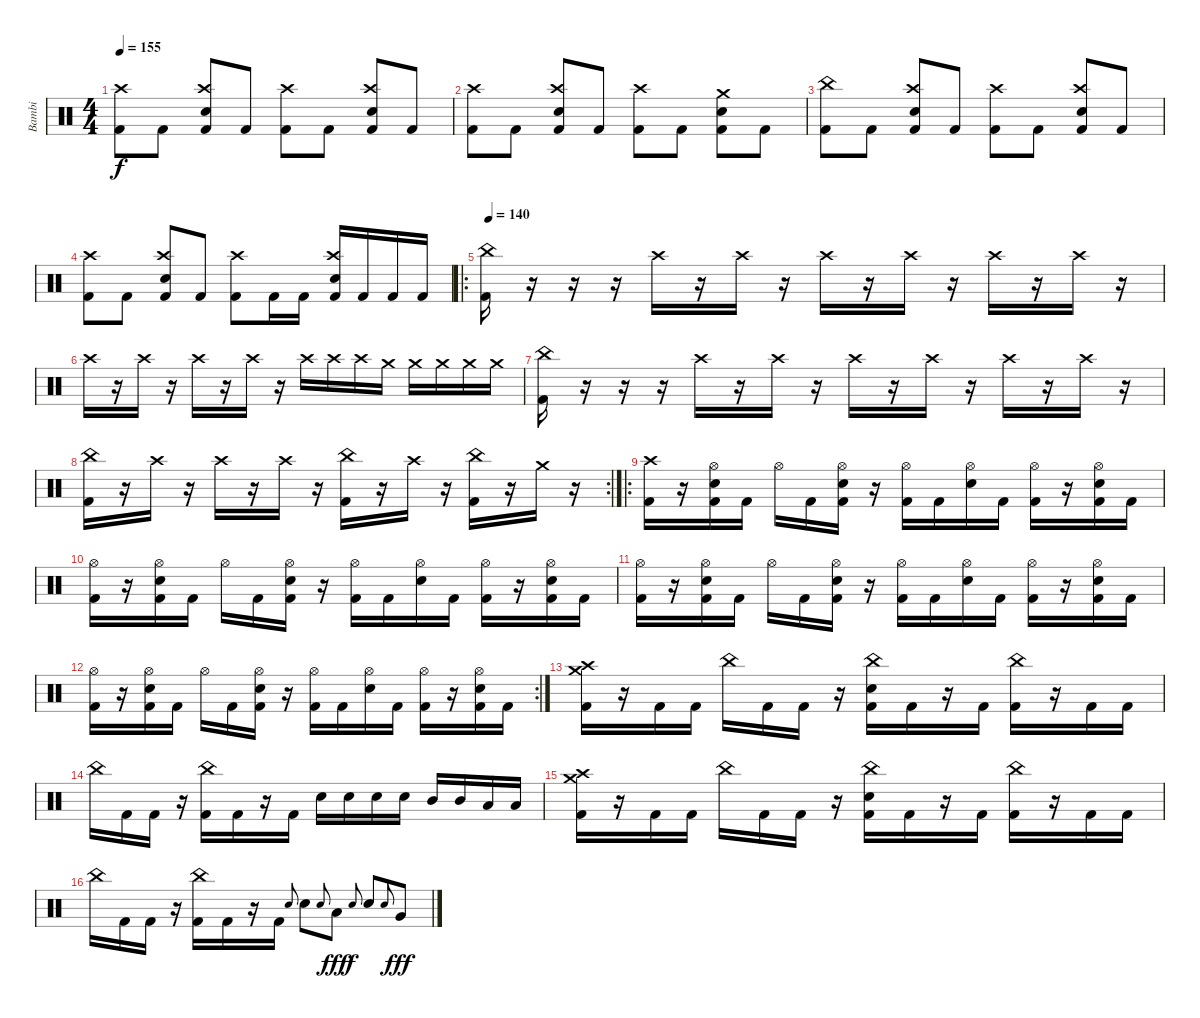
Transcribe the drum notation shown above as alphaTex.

\track ("Bambi" "Bambi") {instrument percussion}
\staff {score}
\articulation defaults
\ts (4 4)
\tempo 155
\clef neutral
\ks c
("Kick (hit) 2" "Crash high (hit)").8{dy f} "Kick (hit) 2".8 ("Kick (hit) 2" "Crash high (hit)" "Electric Snare (hit)").8 "Kick (hit) 2".8 ("Kick (hit) 2" "Crash high (hit)").8 "Kick (hit) 2".8 ("Kick (hit) 2" "Crash high (hit)" "Electric Snare (hit)").8 "Kick (hit) 2".8 |
("Kick (hit) 2" "Crash high (hit)").8 "Kick (hit) 2".8 ("Kick (hit) 2" "Crash high (hit)" "Electric Snare (hit)").8 "Kick (hit) 2".8 ("Kick (hit) 2" "Crash high (hit)").8 "Kick (hit) 2".8 ("Kick (hit) 2" "Crash medium (hit)" "Electric Snare (hit)").8 "Kick (hit) 2".8 |
("Kick (hit) 2" "China (hit)").8 "Kick (hit) 2".8 ("Kick (hit) 2" "Crash high (hit)" "Electric Snare (hit)").8 "Kick (hit) 2".8 ("Kick (hit) 2" "Crash high (hit)").8 "Kick (hit) 2".8 ("Kick (hit) 2" "Crash high (hit)" "Electric Snare (hit)").8 "Kick (hit) 2".8 |
("Kick (hit) 2" "Crash high (hit)").8 "Kick (hit) 2".8 ("Kick (hit) 2" "Crash high (hit)" "Electric Snare (hit)").8 "Kick (hit) 2".8 ("Kick (hit) 2" "Crash high (hit)").8 "Kick (hit) 2".16 "Kick (hit) 2".16 ("Kick (hit) 2" "Crash high (hit)" "Electric Snare (hit)").16 "Kick (hit) 2".16 "Kick (hit) 2".16 "Kick (hit) 2".16 |
\ro
\tempo 140
("Kick (hit) 2" "China (hit)").16 r.16 r.16 r.16 "Crash high (hit)".16 r.16 "Crash high (hit)".16 r.16 "Crash high (hit)".16 r.16 "Crash high (hit)".16 r.16 "Crash high (hit)".16 r.16 "Crash high (hit)".16 r.16 |
"Crash high (hit)".16 r.16 "Crash high (hit)".16 r.16 "Crash high (hit)".16 r.16 "Crash high (hit)".16 r.16 "Crash high (hit)".16 "Crash high (hit)".16 "Crash high (hit)".16 "Crash medium (hit)".16 "Crash medium (hit)".16 "Crash medium (hit)".16 "Crash medium (hit)".16 "Crash medium (hit)".16 |
("Kick (hit) 2" "China (hit)").16 r.16 r.16 r.16 "Crash high (hit)".16 r.16 "Crash high (hit)".16 r.16 "Crash high (hit)".16 r.16 "Crash high (hit)".16 r.16 "Crash high (hit)".16 r.16 "Crash high (hit)".16 r.16 |
\rc 2
("Kick (hit) 2" "China (hit)").16 r.16 "Crash high (hit)".16 r.16 "Crash high (hit)".16 r.16 "Crash high (hit)".16 r.16 ("China (hit)" "Kick (hit) 2").16 r.16 "Crash high (hit)".16 r.16 ("Kick (hit) 2" "China (hit)").16 r.16 "Crash medium (hit)".16 r.16 |
\ro
("Kick (hit) 2" "Crash high (hit)").16 r.16 ("Kick (hit) 2" "Hi-Hat (open)" "Electric Snare (hit)").16 "Kick (hit) 2".16 "Hi-Hat (open)".16 "Kick (hit) 2".16 ("Kick (hit) 2" "Hi-Hat (open)" "Electric Snare (hit)").16 r.16 ("Kick (hit) 2" "Hi-Hat (open)").16 "Kick (hit) 2".16 ("Hi-Hat (open)" "Electric Snare (hit)").16 "Kick (hit) 2".16 ("Kick (hit) 2" "Hi-Hat (open)").16 r.16 ("Kick (hit) 2" "Hi-Hat (open)" "Electric Snare (hit)").16 "Kick (hit) 2".16 |
("Kick (hit) 2" "Hi-Hat (open)").16 r.16 ("Kick (hit) 2" "Hi-Hat (open)" "Electric Snare (hit)").16 "Kick (hit) 2".16 "Hi-Hat (open)".16 "Kick (hit) 2".16 ("Kick (hit) 2" "Hi-Hat (open)" "Electric Snare (hit)").16 r.16 ("Kick (hit) 2" "Hi-Hat (open)").16 "Kick (hit) 2".16 ("Hi-Hat (open)" "Electric Snare (hit)").16 "Kick (hit) 2".16 ("Kick (hit) 2" "Hi-Hat (open)").16 r.16 ("Kick (hit) 2" "Hi-Hat (open)" "Electric Snare (hit)").16 "Kick (hit) 2".16 |
("Kick (hit) 2" "Hi-Hat (open)").16 r.16 ("Kick (hit) 2" "Hi-Hat (open)" "Electric Snare (hit)").16 "Kick (hit) 2".16 "Hi-Hat (open)".16 "Kick (hit) 2".16 ("Kick (hit) 2" "Hi-Hat (open)" "Electric Snare (hit)").16 r.16 ("Kick (hit) 2" "Hi-Hat (open)").16 "Kick (hit) 2".16 ("Hi-Hat (open)" "Electric Snare (hit)").16 "Kick (hit) 2".16 ("Kick (hit) 2" "Hi-Hat (open)").16 r.16 ("Kick (hit) 2" "Hi-Hat (open)" "Electric Snare (hit)").16 "Kick (hit) 2".16 |
\rc 2
("Kick (hit) 2" "Hi-Hat (open)").16 r.16 ("Kick (hit) 2" "Hi-Hat (open)" "Electric Snare (hit)").16 "Kick (hit) 2".16 "Hi-Hat (open)".16 "Kick (hit) 2".16 ("Kick (hit) 2" "Hi-Hat (open)" "Electric Snare (hit)").16 r.16 ("Kick (hit) 2" "Hi-Hat (open)").16 "Kick (hit) 2".16 ("Electric Snare (hit)" "Hi-Hat (open)").16 "Kick (hit) 2".16 ("Kick (hit) 2" "Hi-Hat (open)").16 r.16 ("Kick (hit) 2" "Hi-Hat (open)" "Electric Snare (hit)").16 "Kick (hit) 2".16 |
("Kick (hit) 2" "Crash high (hit)" "Crash medium (hit)").16 r.16 "Kick (hit) 2".16 "Kick (hit) 2".16 "China (hit)".16 "Kick (hit) 2".16 "Kick (hit) 2".16 r.16 ("China (hit)" "Electric Snare (hit)" "Kick (hit) 2").16 "Kick (hit) 2".16 r.16 "Kick (hit) 2".16 ("Kick (hit) 2" "China (hit)").16 r.16 "Kick (hit) 2".16 "Kick (hit) 2".16 |
"China (hit)".16 "Kick (hit) 2".16 "Kick (hit) 2".16 r.16 ("China (hit)" "Kick (hit) 2").16 "Kick (hit) 2".16 r.16 "Kick (hit) 2".16 "Electric Snare (hit)".16 "Electric Snare (hit)".16 "Electric Snare (hit)".16 "Electric Snare (hit)".16 "Mid Tom (hit)".16 "Mid Tom (hit)".16 "Low Tom (hit)".16 "Low Tom (hit)".16 |
("Kick (hit) 2" "Crash high (hit)" "Crash medium (hit)").16 r.16 "Kick (hit) 2".16 "Kick (hit) 2".16 "China (hit)".16 "Kick (hit) 2".16 "Kick (hit) 2".16 r.16 ("China (hit)" "Electric Snare (hit)" "Kick (hit) 2").16 "Kick (hit) 2".16 r.16 "Kick (hit) 2".16 ("Kick (hit) 2" "China (hit)").16 r.16 "Kick (hit) 2".16 "Kick (hit) 2".16 |
"China (hit)".16 "Kick (hit) 2".16 "Kick (hit) 2".16 r.16 ("China (hit)" "Kick (hit) 2").16 "Kick (hit) 2".16 r.16 "Kick (hit) 2".16 "Snare (hit)".8{gr onbeat} "Electric Snare (hit)".8 "Snare (hit)".8{gr onbeat} "Low Tom (hit)".8{dy fff} "Snare (hit)".8{gr onbeat dy f} "Electric Snare (hit)".8 "Snare (hit)".8{gr onbeat} "Very Low Tom (hit)".8{dy fff}
